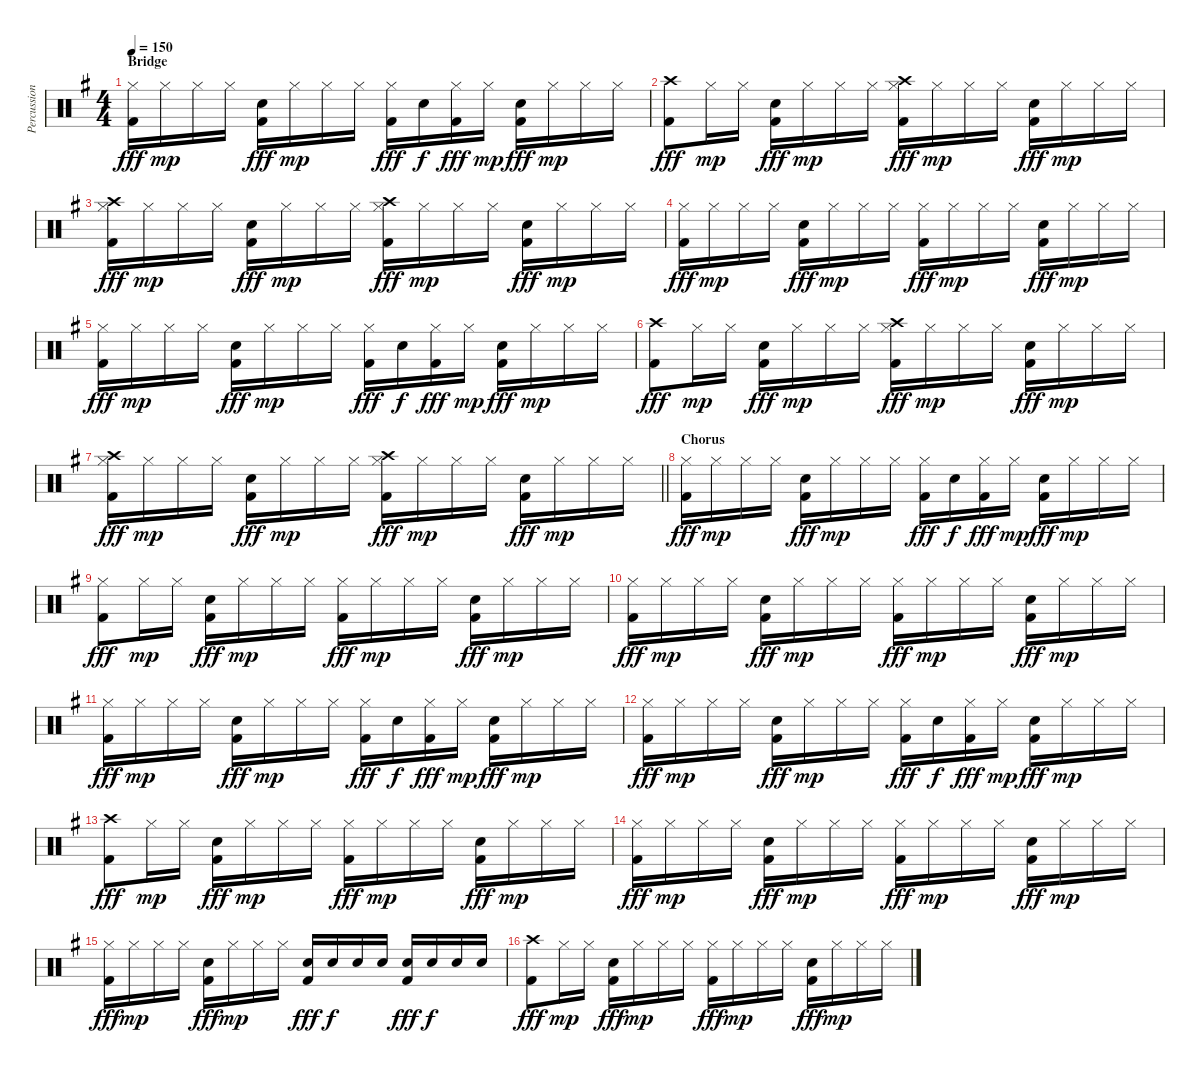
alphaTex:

\track ("Percussion" "Percussion") {instrument percussion}
\staff {score}
\articulation defaults
\ts (4 4)
\section ("" "Bridge")
\tempo 150
\clef neutral
\ks eminor
("Hi-Hat (closed)" "Kick (hit) 2").16{dy fff} "Hi-Hat (closed)".16{dy mp} "Hi-Hat (closed)".16 "Hi-Hat (closed)".16 ("Electric Snare (hit)" "Kick (hit) 2").16{dy fff} "Hi-Hat (closed)".16{dy mp} "Hi-Hat (closed)".16 "Hi-Hat (closed)".16 ("Hi-Hat (closed)" "Kick (hit) 2").16{dy fff} "Electric Snare (hit)".16{dy f} ("Hi-Hat (closed)" "Kick (hit) 2").16{dy fff} "Hi-Hat (closed)".16{dy mp} ("Electric Snare (hit)" "Kick (hit) 2").16{dy fff} "Hi-Hat (closed)".16{dy mp} "Hi-Hat (closed)".16 "Hi-Hat (closed)".16 |
("Crash high (hit)" "Kick (hit) 2").8{dy fff} "Hi-Hat (closed)".16{dy mp} "Hi-Hat (closed)".16 ("Electric Snare (hit)" "Kick (hit) 2").16{dy fff} "Hi-Hat (closed)".16{dy mp} "Hi-Hat (closed)".16 "Hi-Hat (closed)".16 ("Hi-Hat (closed)" "Crash high (hit)" "Kick (hit) 2").16{dy fff} "Hi-Hat (closed)".16{dy mp} "Hi-Hat (closed)".16 "Hi-Hat (closed)".16 ("Electric Snare (hit)" "Kick (hit) 2").16{dy fff} "Hi-Hat (closed)".16{dy mp} "Hi-Hat (closed)".16 "Hi-Hat (closed)".16 |
("Hi-Hat (closed)" "Crash high (hit)" "Kick (hit) 2").16{dy fff} "Hi-Hat (closed)".16{dy mp} "Hi-Hat (closed)".16 "Hi-Hat (closed)".16 ("Electric Snare (hit)" "Kick (hit) 2").16{dy fff} "Hi-Hat (closed)".16{dy mp} "Hi-Hat (closed)".16 "Hi-Hat (closed)".16 ("Hi-Hat (closed)" "Crash high (hit)" "Kick (hit) 2").16{dy fff} "Hi-Hat (closed)".16{dy mp} "Hi-Hat (closed)".16 "Hi-Hat (closed)".16 ("Electric Snare (hit)" "Kick (hit) 2").16{dy fff} "Hi-Hat (closed)".16{dy mp} "Hi-Hat (closed)".16 "Hi-Hat (closed)".16 |
("Hi-Hat (closed)" "Kick (hit) 2").16{dy fff} "Hi-Hat (closed)".16{dy mp} "Hi-Hat (closed)".16 "Hi-Hat (closed)".16 ("Electric Snare (hit)" "Kick (hit) 2").16{dy fff} "Hi-Hat (closed)".16{dy mp} "Hi-Hat (closed)".16 "Hi-Hat (closed)".16 ("Hi-Hat (closed)" "Kick (hit) 2").16{dy fff} "Hi-Hat (closed)".16{dy mp} "Hi-Hat (closed)".16 "Hi-Hat (closed)".16 ("Electric Snare (hit)" "Kick (hit) 2").16{dy fff} "Hi-Hat (closed)".16{dy mp} "Hi-Hat (closed)".16 "Hi-Hat (closed)".16 |
("Hi-Hat (closed)" "Kick (hit) 2").16{dy fff} "Hi-Hat (closed)".16{dy mp} "Hi-Hat (closed)".16 "Hi-Hat (closed)".16 ("Electric Snare (hit)" "Kick (hit) 2").16{dy fff} "Hi-Hat (closed)".16{dy mp} "Hi-Hat (closed)".16 "Hi-Hat (closed)".16 ("Hi-Hat (closed)" "Kick (hit) 2").16{dy fff} "Electric Snare (hit)".16{dy f} ("Hi-Hat (closed)" "Kick (hit) 2").16{dy fff} "Hi-Hat (closed)".16{dy mp} ("Electric Snare (hit)" "Kick (hit) 2").16{dy fff} "Hi-Hat (closed)".16{dy mp} "Hi-Hat (closed)".16 "Hi-Hat (closed)".16 |
("Crash high (hit)" "Kick (hit) 2").8{dy fff} "Hi-Hat (closed)".16{dy mp} "Hi-Hat (closed)".16 ("Electric Snare (hit)" "Kick (hit) 2").16{dy fff} "Hi-Hat (closed)".16{dy mp} "Hi-Hat (closed)".16 "Hi-Hat (closed)".16 ("Hi-Hat (closed)" "Crash high (hit)" "Kick (hit) 2").16{dy fff} "Hi-Hat (closed)".16{dy mp} "Hi-Hat (closed)".16 "Hi-Hat (closed)".16 ("Electric Snare (hit)" "Kick (hit) 2").16{dy fff} "Hi-Hat (closed)".16{dy mp} "Hi-Hat (closed)".16 "Hi-Hat (closed)".16 |
\barLineRight lightlight
("Hi-Hat (closed)" "Crash high (hit)" "Kick (hit) 2").16{dy fff} "Hi-Hat (closed)".16{dy mp} "Hi-Hat (closed)".16 "Hi-Hat (closed)".16 ("Electric Snare (hit)" "Kick (hit) 2").16{dy fff} "Hi-Hat (closed)".16{dy mp} "Hi-Hat (closed)".16 "Hi-Hat (closed)".16 ("Hi-Hat (closed)" "Crash high (hit)" "Kick (hit) 2").16{dy fff} "Hi-Hat (closed)".16{dy mp} "Hi-Hat (closed)".16 "Hi-Hat (closed)".16 ("Electric Snare (hit)" "Kick (hit) 2").16{dy fff} "Hi-Hat (closed)".16{dy mp} "Hi-Hat (closed)".16 "Hi-Hat (closed)".16 |
\section ("" "Chorus")
("Hi-Hat (closed)" "Kick (hit) 2").16{dy fff} "Hi-Hat (closed)".16{dy mp} "Hi-Hat (closed)".16 "Hi-Hat (closed)".16 ("Electric Snare (hit)" "Kick (hit) 2").16{dy fff} "Hi-Hat (closed)".16{dy mp} "Hi-Hat (closed)".16 "Hi-Hat (closed)".16 ("Hi-Hat (closed)" "Kick (hit) 2").16{dy fff} "Electric Snare (hit)".16{dy f} ("Hi-Hat (closed)" "Kick (hit) 2").16{dy fff} "Hi-Hat (closed)".16{dy mp} ("Electric Snare (hit)" "Kick (hit) 2").16{dy fff} "Hi-Hat (closed)".16{dy mp} "Hi-Hat (closed)".16 "Hi-Hat (closed)".16 |
("Hi-Hat (closed)" "Kick (hit) 2").8{dy fff} "Hi-Hat (closed)".16{dy mp} "Hi-Hat (closed)".16 ("Electric Snare (hit)" "Kick (hit) 2").16{dy fff} "Hi-Hat (closed)".16{dy mp} "Hi-Hat (closed)".16 "Hi-Hat (closed)".16 ("Hi-Hat (closed)" "Kick (hit) 2").16{dy fff} "Hi-Hat (closed)".16{dy mp} "Hi-Hat (closed)".16 "Hi-Hat (closed)".16 ("Electric Snare (hit)" "Kick (hit) 2").16{dy fff} "Hi-Hat (closed)".16{dy mp} "Hi-Hat (closed)".16 "Hi-Hat (closed)".16 |
("Hi-Hat (closed)" "Kick (hit) 2").16{dy fff} "Hi-Hat (closed)".16{dy mp} "Hi-Hat (closed)".16 "Hi-Hat (closed)".16 ("Electric Snare (hit)" "Kick (hit) 2").16{dy fff} "Hi-Hat (closed)".16{dy mp} "Hi-Hat (closed)".16 "Hi-Hat (closed)".16 ("Hi-Hat (closed)" "Kick (hit) 2").16{dy fff} "Hi-Hat (closed)".16{dy mp} "Hi-Hat (closed)".16 "Hi-Hat (closed)".16 ("Electric Snare (hit)" "Kick (hit) 2").16{dy fff} "Hi-Hat (closed)".16{dy mp} "Hi-Hat (closed)".16 "Hi-Hat (closed)".16 |
("Hi-Hat (closed)" "Kick (hit) 2").16{dy fff} "Hi-Hat (closed)".16{dy mp} "Hi-Hat (closed)".16 "Hi-Hat (closed)".16 ("Electric Snare (hit)" "Kick (hit) 2").16{dy fff} "Hi-Hat (closed)".16{dy mp} "Hi-Hat (closed)".16 "Hi-Hat (closed)".16 ("Hi-Hat (closed)" "Kick (hit) 2").16{dy fff} "Electric Snare (hit)".16{dy f} ("Hi-Hat (closed)" "Kick (hit) 2").16{dy fff} "Hi-Hat (closed)".16{dy mp} ("Electric Snare (hit)" "Kick (hit) 2").16{dy fff} "Hi-Hat (closed)".16{dy mp} "Hi-Hat (closed)".16 "Hi-Hat (closed)".16 |
("Hi-Hat (closed)" "Kick (hit) 2").16{dy fff} "Hi-Hat (closed)".16{dy mp} "Hi-Hat (closed)".16 "Hi-Hat (closed)".16 ("Electric Snare (hit)" "Kick (hit) 2").16{dy fff} "Hi-Hat (closed)".16{dy mp} "Hi-Hat (closed)".16 "Hi-Hat (closed)".16 ("Hi-Hat (closed)" "Kick (hit) 2").16{dy fff} "Electric Snare (hit)".16{dy f} ("Hi-Hat (closed)" "Kick (hit) 2").16{dy fff} "Hi-Hat (closed)".16{dy mp} ("Electric Snare (hit)" "Kick (hit) 2").16{dy fff} "Hi-Hat (closed)".16{dy mp} "Hi-Hat (closed)".16 "Hi-Hat (closed)".16 |
("Crash high (hit)" "Kick (hit) 2").8{dy fff} "Hi-Hat (closed)".16{dy mp} "Hi-Hat (closed)".16 ("Electric Snare (hit)" "Kick (hit) 2").16{dy fff} "Hi-Hat (closed)".16{dy mp} "Hi-Hat (closed)".16 "Hi-Hat (closed)".16 ("Hi-Hat (closed)" "Kick (hit) 2").16{dy fff} "Hi-Hat (closed)".16{dy mp} "Hi-Hat (closed)".16 "Hi-Hat (closed)".16 ("Electric Snare (hit)" "Kick (hit) 2").16{dy fff} "Hi-Hat (closed)".16{dy mp} "Hi-Hat (closed)".16 "Hi-Hat (closed)".16 |
("Hi-Hat (closed)" "Kick (hit) 2").16{dy fff} "Hi-Hat (closed)".16{dy mp} "Hi-Hat (closed)".16 "Hi-Hat (closed)".16 ("Electric Snare (hit)" "Kick (hit) 2").16{dy fff} "Hi-Hat (closed)".16{dy mp} "Hi-Hat (closed)".16 "Hi-Hat (closed)".16 ("Hi-Hat (closed)" "Kick (hit) 2").16{dy fff} "Hi-Hat (closed)".16{dy mp} "Hi-Hat (closed)".16 "Hi-Hat (closed)".16 ("Electric Snare (hit)" "Kick (hit) 2").16{dy fff} "Hi-Hat (closed)".16{dy mp} "Hi-Hat (closed)".16 "Hi-Hat (closed)".16 |
("Hi-Hat (closed)" "Kick (hit) 2").16{dy fff} "Hi-Hat (closed)".16{dy mp} "Hi-Hat (closed)".16 "Hi-Hat (closed)".16 ("Electric Snare (hit)" "Kick (hit) 2").16{dy fff} "Hi-Hat (closed)".16{dy mp} "Hi-Hat (closed)".16 "Hi-Hat (closed)".16 ("Electric Snare (hit)" "Kick (hit) 2").16{dy fff} "Electric Snare (hit)".16{dy f} "Electric Snare (hit)".16 "Electric Snare (hit)".16 ("Electric Snare (hit)" "Kick (hit) 2").16{dy fff} "Electric Snare (hit)".16{dy f} "Electric Snare (hit)".16 "Electric Snare (hit)".16 |
("Crash high (hit)" "Kick (hit) 2").8{dy fff} "Hi-Hat (closed)".16{dy mp} "Hi-Hat (closed)".16 ("Electric Snare (hit)" "Kick (hit) 2").16{dy fff} "Hi-Hat (closed)".16{dy mp} "Hi-Hat (closed)".16 "Hi-Hat (closed)".16 ("Hi-Hat (closed)" "Kick (hit) 2").16{dy fff} "Hi-Hat (closed)".16{dy mp} "Hi-Hat (closed)".16 "Hi-Hat (closed)".16 ("Electric Snare (hit)" "Kick (hit) 2").16{dy fff} "Hi-Hat (closed)".16{dy mp} "Hi-Hat (closed)".16 "Hi-Hat (closed)".16
